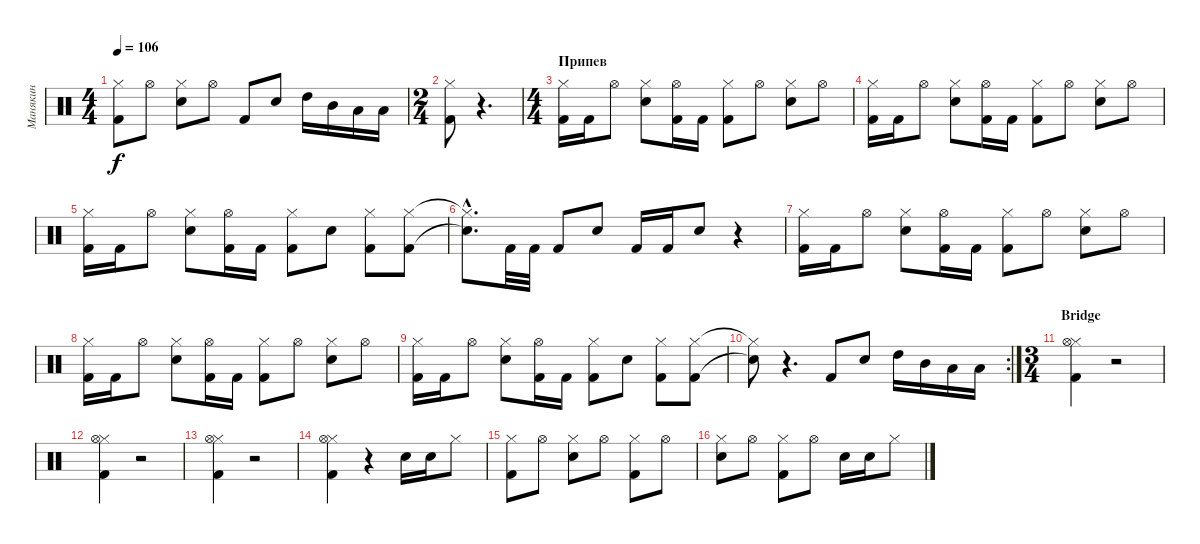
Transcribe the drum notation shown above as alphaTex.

\track ("Манякин" "Манякин") {instrument percussion}
\staff {score}
\articulation defaults
\ts (4 4)
\tempo 106
\clef neutral
\ks c
("Hi-Hat (closed)" "Kick (hit) 2").8{dy f} "Hi-Hat (open)".8 ("Hi-Hat (closed)" "Electric Snare (hit)").8 "Hi-Hat (open)".8 "Kick (hit) 2".8 "Electric Snare (hit)".8 "High Tom (hit)".16 "Mid Tom (hit)".16 "Low Tom (hit)".16 "Low Tom (hit)".16 |
\ts (2 4)
("Hi-Hat (closed)" "Kick (hit) 2").8 r.4{d} |
\ts (4 4)
\section ("" "Припев")
("Hi-Hat (closed)" "Kick (hit) 2").16 "Kick (hit) 2".16 "Hi-Hat (open)".8 ("Hi-Hat (closed)" "Electric Snare (hit)").8 ("Kick (hit) 2" "Hi-Hat (open)").16 "Kick (hit) 2".16 ("Hi-Hat (closed)" "Kick (hit) 2").8 "Hi-Hat (open)".8 ("Hi-Hat (closed)" "Electric Snare (hit)").8 "Hi-Hat (open)".8 |
("Hi-Hat (closed)" "Kick (hit) 2").16 "Kick (hit) 2".16 "Hi-Hat (open)".8 ("Hi-Hat (closed)" "Electric Snare (hit)").8 ("Kick (hit) 2" "Hi-Hat (open)").16 "Kick (hit) 2".16 ("Hi-Hat (closed)" "Kick (hit) 2").8 "Hi-Hat (open)".8 ("Hi-Hat (closed)" "Electric Snare (hit)").8 "Hi-Hat (open)".8 |
("Hi-Hat (closed)" "Kick (hit) 2").16 "Kick (hit) 2".16 "Hi-Hat (open)".8 ("Hi-Hat (closed)" "Electric Snare (hit)").8 ("Kick (hit) 2" "Hi-Hat (open)").16 "Kick (hit) 2".16 ("Hi-Hat (closed)" "Kick (hit) 2").8 "Electric Snare (hit)".8 ("Hi-Hat (closed)" "Kick (hit) 2").8 ("Hi-Hat (closed)" "Kick (hit) 2").8 |
("Hi-Hat (closed)"{hac t} "Electric Snare (hit)"{hac t}).8{d} "Kick (hit) 2".32 "Kick (hit) 2".32 "Kick (hit) 2".8 "Electric Snare (hit)".8 "Kick (hit) 2".16 "Kick (hit) 2".16 "Electric Snare (hit)".8 r.4 |
("Hi-Hat (closed)" "Kick (hit) 2").16 "Kick (hit) 2".16 "Hi-Hat (open)".8 ("Hi-Hat (closed)" "Electric Snare (hit)").8 ("Kick (hit) 2" "Hi-Hat (open)").16 "Kick (hit) 2".16 ("Hi-Hat (closed)" "Kick (hit) 2").8 "Hi-Hat (open)".8 ("Hi-Hat (closed)" "Electric Snare (hit)").8 "Hi-Hat (open)".8 |
("Hi-Hat (closed)" "Kick (hit) 2").16 "Kick (hit) 2".16 "Hi-Hat (open)".8 ("Hi-Hat (closed)" "Electric Snare (hit)").8 ("Kick (hit) 2" "Hi-Hat (open)").16 "Kick (hit) 2".16 ("Hi-Hat (closed)" "Kick (hit) 2").8 "Hi-Hat (open)".8 ("Hi-Hat (closed)" "Electric Snare (hit)").8 "Hi-Hat (open)".8 |
("Hi-Hat (closed)" "Kick (hit) 2").16 "Kick (hit) 2".16 "Hi-Hat (open)".8 ("Hi-Hat (closed)" "Electric Snare (hit)").8 ("Kick (hit) 2" "Hi-Hat (open)").16 "Kick (hit) 2".16 ("Hi-Hat (closed)" "Kick (hit) 2").8 "Electric Snare (hit)".8 ("Hi-Hat (closed)" "Kick (hit) 2").8 ("Hi-Hat (closed)" "Kick (hit) 2").8 |
\rc 2
("Hi-Hat (closed)"{t} "Electric Snare (hit)"{t}).8 r.4{d} "Kick (hit) 2".8 "Electric Snare (hit)".8 "High Tom (hit)".16 "Mid Tom (hit)".16 "Low Tom (hit)".16 "Low Tom (hit)".16 |
\ts (3 4)
\section ("" "Bridge")
("Hi-Hat (closed)" "Kick (hit) 2" "Hi-Hat (open)").4 r.2 |
("Hi-Hat (closed)" "Kick (hit) 2" "Hi-Hat (open)").4 r.2 |
("Hi-Hat (closed)" "Kick (hit) 2" "Hi-Hat (open)").4 r.2 |
("Hi-Hat (closed)" "Kick (hit) 2" "Hi-Hat (open)").4 r.4 "Electric Snare (hit)".16 "Electric Snare (hit)".16 "Hi-Hat (closed)".8 |
("Hi-Hat (closed)" "Kick (hit) 2").8 "Hi-Hat (open)".8 ("Hi-Hat (closed)" "Electric Snare (hit)").8 "Hi-Hat (open)".8 ("Hi-Hat (closed)" "Kick (hit) 2").8 "Hi-Hat (open)".8 |
("Hi-Hat (closed)" "Electric Snare (hit)").8 "Hi-Hat (open)".8 ("Hi-Hat (closed)" "Kick (hit) 2").8 "Hi-Hat (open)".8 "Electric Snare (hit)".16 "Electric Snare (hit)".16 "Hi-Hat (closed)".8
